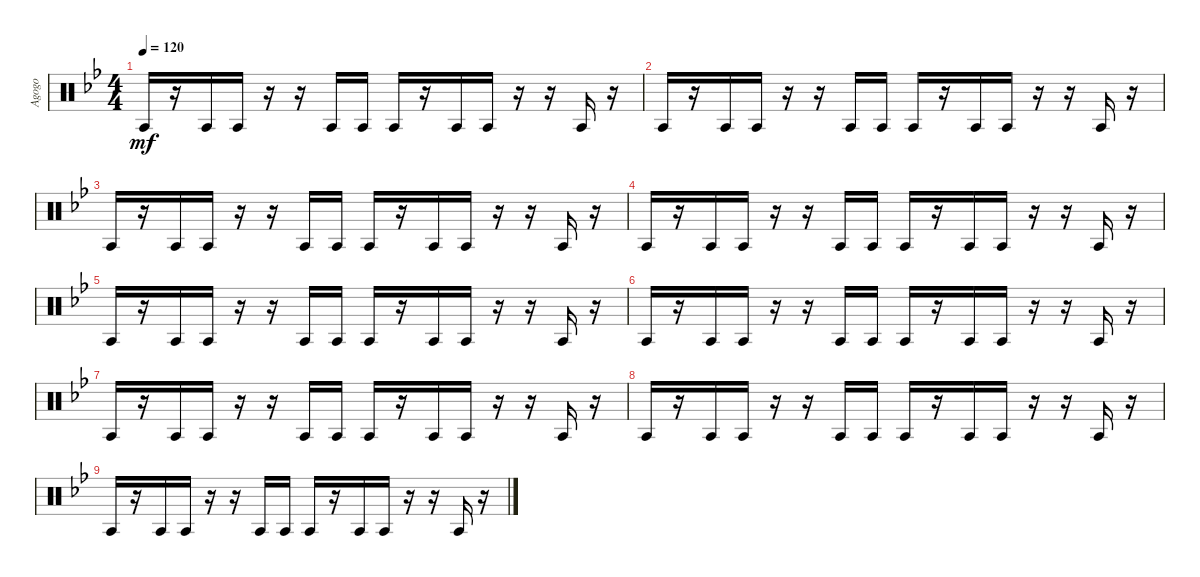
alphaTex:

\track ("Agogo" "Agogo") {instrument percussion}
\staff {score}
\articulation defaults
\ts (4 4)
\tempo 120
\clef neutral
\ks bb "Agogo tow (hit)".16{dy mf}
r.16 "Agogo tow (hit)".16 "Agogo tow (hit)".16 r.16 r.16 "Agogo tow (hit)".16 "Agogo tow (hit)".16 "Agogo tow (hit)".16 r.16 "Agogo tow (hit)".16 "Agogo tow (hit)".16 r.16 r.16 "Agogo tow (hit)".16 r.16 |
"Agogo tow (hit)".16 r.16 "Agogo tow (hit)".16 "Agogo tow (hit)".16 r.16 r.16 "Agogo tow (hit)".16 "Agogo tow (hit)".16 "Agogo tow (hit)".16 r.16 "Agogo tow (hit)".16 "Agogo tow (hit)".16 r.16 r.16 "Agogo tow (hit)".16 r.16 |
"Agogo tow (hit)".16 r.16 "Agogo tow (hit)".16 "Agogo tow (hit)".16 r.16 r.16 "Agogo tow (hit)".16 "Agogo tow (hit)".16 "Agogo tow (hit)".16 r.16 "Agogo tow (hit)".16 "Agogo tow (hit)".16 r.16 r.16 "Agogo tow (hit)".16 r.16 |
"Agogo tow (hit)".16 r.16 "Agogo tow (hit)".16 "Agogo tow (hit)".16 r.16 r.16 "Agogo tow (hit)".16 "Agogo tow (hit)".16 "Agogo tow (hit)".16 r.16 "Agogo tow (hit)".16 "Agogo tow (hit)".16 r.16 r.16 "Agogo tow (hit)".16 r.16 |
"Agogo tow (hit)".16 r.16 "Agogo tow (hit)".16 "Agogo tow (hit)".16 r.16 r.16 "Agogo tow (hit)".16 "Agogo tow (hit)".16 "Agogo tow (hit)".16 r.16 "Agogo tow (hit)".16 "Agogo tow (hit)".16 r.16 r.16 "Agogo tow (hit)".16 r.16 |
"Agogo tow (hit)".16 r.16 "Agogo tow (hit)".16 "Agogo tow (hit)".16 r.16 r.16 "Agogo tow (hit)".16 "Agogo tow (hit)".16 "Agogo tow (hit)".16 r.16 "Agogo tow (hit)".16 "Agogo tow (hit)".16 r.16 r.16 "Agogo tow (hit)".16 r.16 |
"Agogo tow (hit)".16 r.16 "Agogo tow (hit)".16 "Agogo tow (hit)".16 r.16 r.16 "Agogo tow (hit)".16 "Agogo tow (hit)".16 "Agogo tow (hit)".16 r.16 "Agogo tow (hit)".16 "Agogo tow (hit)".16 r.16 r.16 "Agogo tow (hit)".16 r.16 |
"Agogo tow (hit)".16 r.16 "Agogo tow (hit)".16 "Agogo tow (hit)".16 r.16 r.16 "Agogo tow (hit)".16 "Agogo tow (hit)".16 "Agogo tow (hit)".16 r.16 "Agogo tow (hit)".16 "Agogo tow (hit)".16 r.16 r.16 "Agogo tow (hit)".16 r.16 |
"Agogo tow (hit)".16 r.16 "Agogo tow (hit)".16 "Agogo tow (hit)".16 r.16 r.16 "Agogo tow (hit)".16 "Agogo tow (hit)".16 "Agogo tow (hit)".16 r.16 "Agogo tow (hit)".16 "Agogo tow (hit)".16 r.16 r.16 "Agogo tow (hit)".16 r.16
